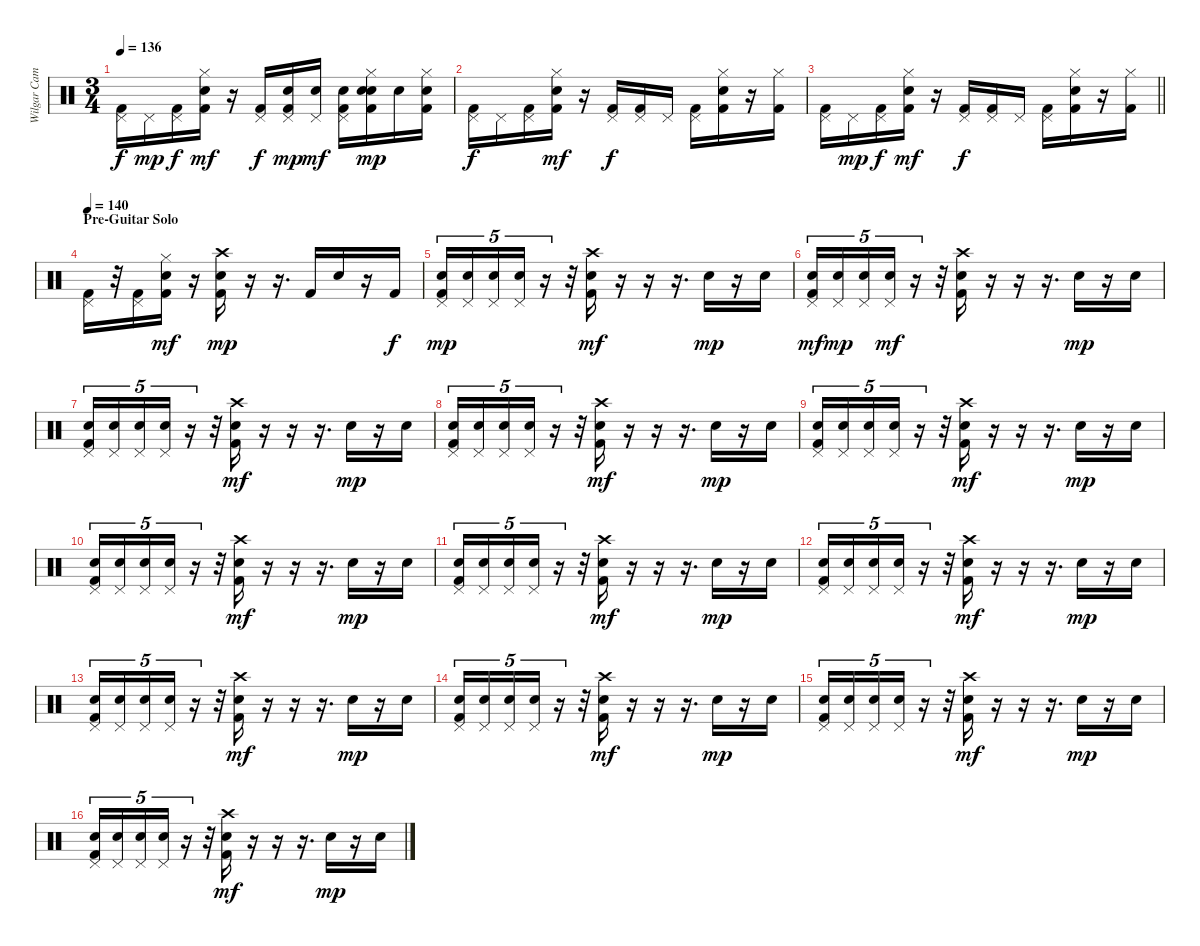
\track ("Wilgar Campbell" "Wilgar Cam") {instrument percussion}
\staff {score}
\articulation defaults
\ts (3 4)
\tempo 136
\clef neutral
\ks c
("Pedal Hi-Hat (hit)" "Kick (hit) 2").16{dy f} "Pedal Hi-Hat (hit)".16{dy mp} ("Pedal Hi-Hat (hit)" "Kick (hit) 2").16{dy f} ("Snare (hit) 2" "Hi-Hat (closed)" "Kick (hit) 2").16{dy mf} r.16 ("Pedal Hi-Hat (hit)" "Kick (hit) 2").16{dy f} ("Pedal Hi-Hat (hit)" "Snare (hit) 2" "Kick (hit) 2").16{dy mp} ("Pedal Hi-Hat (hit)" "Snare (hit) 2").16{dy mf} ("Pedal Hi-Hat (hit)" "Snare (hit) 2" "Kick (hit) 2").16 ("Snare (hit) 2" "Hi-Hat (closed)" "Snare (hit) 2" "Kick (hit) 2").16{dy mp} "Snare (hit) 2".16 ("Hi-Hat (closed)" "Snare (hit) 2" "Kick (hit) 2").16 |
("Pedal Hi-Hat (hit)" "Kick (hit) 2").16{dy f} "Pedal Hi-Hat (hit)".16 ("Pedal Hi-Hat (hit)" "Kick (hit) 2").16 ("Snare (hit) 2" "Hi-Hat (closed)" "Kick (hit) 2").16{dy mf} r.16 ("Pedal Hi-Hat (hit)" "Kick (hit) 2").16{dy f} ("Pedal Hi-Hat (hit)" "Kick (hit) 2").16 "Pedal Hi-Hat (hit)".16 ("Pedal Hi-Hat (hit)" "Kick (hit) 2").16 ("Snare (hit) 2" "Hi-Hat (closed)" "Kick (hit) 2").16 r.16 ("Hi-Hat (closed)" "Kick (hit) 2").16 |
\barLineRight lightlight
("Pedal Hi-Hat (hit)" "Kick (hit) 2").16 "Pedal Hi-Hat (hit)".16{dy mp} ("Pedal Hi-Hat (hit)" "Kick (hit) 2").16{dy f} ("Snare (hit) 2" "Hi-Hat (closed)" "Kick (hit) 2").16{dy mf} r.16 ("Pedal Hi-Hat (hit)" "Kick (hit) 2").16{dy f} ("Pedal Hi-Hat (hit)" "Kick (hit) 2").16 "Pedal Hi-Hat (hit)".16 ("Pedal Hi-Hat (hit)" "Kick (hit) 2").16 ("Snare (hit) 2" "Hi-Hat (closed)" "Kick (hit) 2").16 r.16 ("Hi-Hat (closed)" "Kick (hit) 2").16 |
\section ("" "Pre-Guitar Solo")
\tempo 140
("Pedal Hi-Hat (hit)" "Kick (hit) 2").16 r.32 ("Pedal Hi-Hat (hit)" "Kick (hit) 2").16 ("Snare (hit) 2" "Hi-Hat (closed)" "Kick (hit) 2").16{dy mf} r.16 ("Crash high (hit)" "Snare (hit) 2" "Kick (hit) 2").16{dy mp} r.16 r.16{d} "Kick (hit) 2".16 "Electric Snare (hit)".16 r.16 "Kick (hit) 2".16{dy f} |
("Snare (hit) 2" "Pedal Hi-Hat (hit)" "Kick (hit) 2").16{tu (5 4) dy mp} ("Snare (hit) 2" "Pedal Hi-Hat (hit)").16{tu (5 4)} ("Snare (hit) 2" "Pedal Hi-Hat (hit)").16{tu (5 4)} ("Snare (hit) 2" "Pedal Hi-Hat (hit)").16{tu (5 4)} r.16{tu (5 4)} r.32 ("Crash high (hit)" "Snare (hit) 2" "Kick (hit) 2").16{dy mf} r.16 r.16 r.16{d} "Electric Snare (hit)".16{dy mp} r.16 "Electric Snare (hit)".16 |
("Snare (hit) 2" "Pedal Hi-Hat (hit)" "Kick (hit) 2").16{tu (5 4) dy mf} ("Snare (hit) 2" "Pedal Hi-Hat (hit)").16{tu (5 4) dy mp} ("Snare (hit) 2" "Pedal Hi-Hat (hit)").16{tu (5 4)} ("Snare (hit) 2" "Pedal Hi-Hat (hit)").16{tu (5 4) dy mf} r.16{tu (5 4)} r.32 ("Crash high (hit)" "Snare (hit) 2" "Kick (hit) 2").16 r.16 r.16 r.16{d} "Electric Snare (hit)".16{dy mp} r.16 "Electric Snare (hit)".16 |
("Snare (hit) 2" "Pedal Hi-Hat (hit)" "Kick (hit) 2").16{tu (5 4)} ("Snare (hit) 2" "Pedal Hi-Hat (hit)").16{tu (5 4)} ("Snare (hit) 2" "Pedal Hi-Hat (hit)").16{tu (5 4)} ("Snare (hit) 2" "Pedal Hi-Hat (hit)").16{tu (5 4)} r.16{tu (5 4)} r.32 ("Crash high (hit)" "Snare (hit) 2" "Kick (hit) 2").16{dy mf} r.16 r.16 r.16{d} "Electric Snare (hit)".16{dy mp} r.16 "Electric Snare (hit)".16 |
("Snare (hit) 2" "Pedal Hi-Hat (hit)" "Kick (hit) 2").16{tu (5 4)} ("Snare (hit) 2" "Pedal Hi-Hat (hit)").16{tu (5 4)} ("Snare (hit) 2" "Pedal Hi-Hat (hit)").16{tu (5 4)} ("Snare (hit) 2" "Pedal Hi-Hat (hit)").16{tu (5 4)} r.16{tu (5 4)} r.32 ("Crash high (hit)" "Snare (hit) 2" "Kick (hit) 2").16{dy mf} r.16 r.16 r.16{d} "Electric Snare (hit)".16{dy mp} r.16 "Electric Snare (hit)".16 |
("Snare (hit) 2" "Pedal Hi-Hat (hit)" "Kick (hit) 2").16{tu (5 4)} ("Snare (hit) 2" "Pedal Hi-Hat (hit)").16{tu (5 4)} ("Snare (hit) 2" "Pedal Hi-Hat (hit)").16{tu (5 4)} ("Snare (hit) 2" "Pedal Hi-Hat (hit)").16{tu (5 4)} r.16{tu (5 4)} r.32 ("Crash high (hit)" "Snare (hit) 2" "Kick (hit) 2").16{dy mf} r.16 r.16 r.16{d} "Electric Snare (hit)".16{dy mp} r.16 "Electric Snare (hit)".16 |
("Snare (hit) 2" "Pedal Hi-Hat (hit)" "Kick (hit) 2").16{tu (5 4)} ("Snare (hit) 2" "Pedal Hi-Hat (hit)").16{tu (5 4)} ("Snare (hit) 2" "Pedal Hi-Hat (hit)").16{tu (5 4)} ("Snare (hit) 2" "Pedal Hi-Hat (hit)").16{tu (5 4)} r.16{tu (5 4)} r.32 ("Crash high (hit)" "Snare (hit) 2" "Kick (hit) 2").16{dy mf} r.16 r.16 r.16{d} "Electric Snare (hit)".16{dy mp} r.16 "Electric Snare (hit)".16 |
("Snare (hit) 2" "Pedal Hi-Hat (hit)" "Kick (hit) 2").16{tu (5 4)} ("Snare (hit) 2" "Pedal Hi-Hat (hit)").16{tu (5 4)} ("Snare (hit) 2" "Pedal Hi-Hat (hit)").16{tu (5 4)} ("Snare (hit) 2" "Pedal Hi-Hat (hit)").16{tu (5 4)} r.16{tu (5 4)} r.32 ("Crash high (hit)" "Snare (hit) 2" "Kick (hit) 2").16{dy mf} r.16 r.16 r.16{d} "Electric Snare (hit)".16{dy mp} r.16 "Electric Snare (hit)".16 |
("Snare (hit) 2" "Pedal Hi-Hat (hit)" "Kick (hit) 2").16{tu (5 4)} ("Snare (hit) 2" "Pedal Hi-Hat (hit)").16{tu (5 4)} ("Snare (hit) 2" "Pedal Hi-Hat (hit)").16{tu (5 4)} ("Snare (hit) 2" "Pedal Hi-Hat (hit)").16{tu (5 4)} r.16{tu (5 4)} r.32 ("Crash high (hit)" "Snare (hit) 2" "Kick (hit) 2").16{dy mf} r.16 r.16 r.16{d} "Electric Snare (hit)".16{dy mp} r.16 "Electric Snare (hit)".16 |
("Snare (hit) 2" "Pedal Hi-Hat (hit)" "Kick (hit) 2").16{tu (5 4)} ("Snare (hit) 2" "Pedal Hi-Hat (hit)").16{tu (5 4)} ("Snare (hit) 2" "Pedal Hi-Hat (hit)").16{tu (5 4)} ("Snare (hit) 2" "Pedal Hi-Hat (hit)").16{tu (5 4)} r.16{tu (5 4)} r.32 ("Crash high (hit)" "Snare (hit) 2" "Kick (hit) 2").16{dy mf} r.16 r.16 r.16{d} "Electric Snare (hit)".16{dy mp} r.16 "Electric Snare (hit)".16 |
("Snare (hit) 2" "Pedal Hi-Hat (hit)" "Kick (hit) 2").16{tu (5 4)} ("Snare (hit) 2" "Pedal Hi-Hat (hit)").16{tu (5 4)} ("Snare (hit) 2" "Pedal Hi-Hat (hit)").16{tu (5 4)} ("Snare (hit) 2" "Pedal Hi-Hat (hit)").16{tu (5 4)} r.16{tu (5 4)} r.32 ("Crash high (hit)" "Snare (hit) 2" "Kick (hit) 2").16{dy mf} r.16 r.16 r.16{d} "Electric Snare (hit)".16{dy mp} r.16 "Electric Snare (hit)".16 |
("Snare (hit) 2" "Pedal Hi-Hat (hit)" "Kick (hit) 2").16{tu (5 4)} ("Snare (hit) 2" "Pedal Hi-Hat (hit)").16{tu (5 4)} ("Snare (hit) 2" "Pedal Hi-Hat (hit)").16{tu (5 4)} ("Snare (hit) 2" "Pedal Hi-Hat (hit)").16{tu (5 4)} r.16{tu (5 4)} r.32 ("Crash high (hit)" "Snare (hit) 2" "Kick (hit) 2").16{dy mf} r.16 r.16 r.16{d} "Electric Snare (hit)".16{dy mp} r.16 "Electric Snare (hit)".16 |
("Snare (hit) 2" "Pedal Hi-Hat (hit)" "Kick (hit) 2").16{tu (5 4)} ("Snare (hit) 2" "Pedal Hi-Hat (hit)").16{tu (5 4)} ("Snare (hit) 2" "Pedal Hi-Hat (hit)").16{tu (5 4)} ("Snare (hit) 2" "Pedal Hi-Hat (hit)").16{tu (5 4)} r.16{tu (5 4)} r.32 ("Crash high (hit)" "Snare (hit) 2" "Kick (hit) 2").16{dy mf} r.16 r.16 r.16{d} "Electric Snare (hit)".16{dy mp} r.16 "Electric Snare (hit)".16
